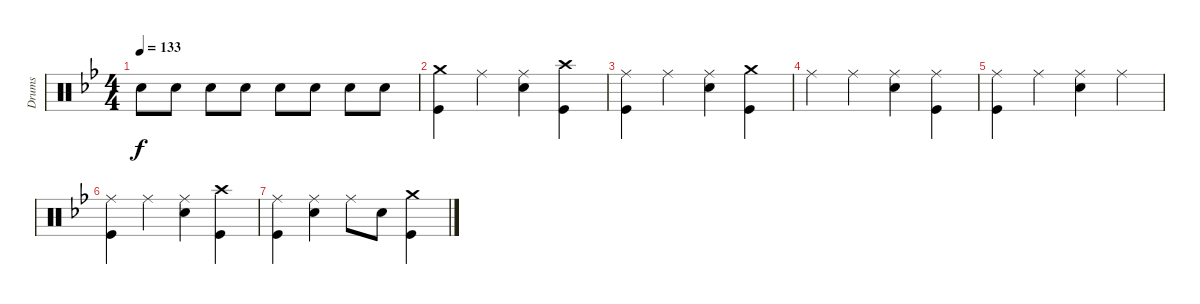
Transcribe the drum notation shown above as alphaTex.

\track ("Drums" "Drums") {instrument percussion}
\staff {score}
\articulation defaults
\ts (4 4)
\tempo 133
\clef neutral
\ks bb "Snare (hit) 2".8{dy f} "Snare (hit) 2".8 "Snare (hit) 2".8 "Snare (hit) 2".8 "Snare (hit) 2".8 "Snare (hit) 2".8 "Snare (hit) 2".8 "Snare (hit) 2".8
|
("Crash medium (hit)" "Kick (hit)").4 "Ride (middle)".4 ("Ride (middle)" "Snare (hit) 2").4 ("Crash high (hit)" "Kick (hit)").4 |
("Ride (middle)" "Kick (hit)").4 "Ride (middle)".4 ("Ride (middle)" "Snare (hit) 2").4 ("Crash medium (hit)" "Kick (hit)").4 |
"Ride (middle)".4 "Ride (middle)".4 ("Ride (middle)" "Snare (hit) 2").4 ("Ride (middle)" "Kick (hit)").4 |
("Ride (middle)" "Kick (hit)").4 "Ride (middle)".4 ("Ride (middle)" "Snare (hit) 2").4 "Ride (middle)".4 |
("Ride (middle)" "Kick (hit)").4 "Ride (middle)".4 ("Ride (middle)" "Snare (hit) 2").4 ("Crash high (hit)" "Kick (hit)").4 |
("Ride (middle)" "Kick (hit)").4 ("Ride (middle)" "Snare (hit) 2").4 "Ride (middle)".8 "Snare (hit) 2".8 ("Crash medium (hit)" "Kick (hit)").4
